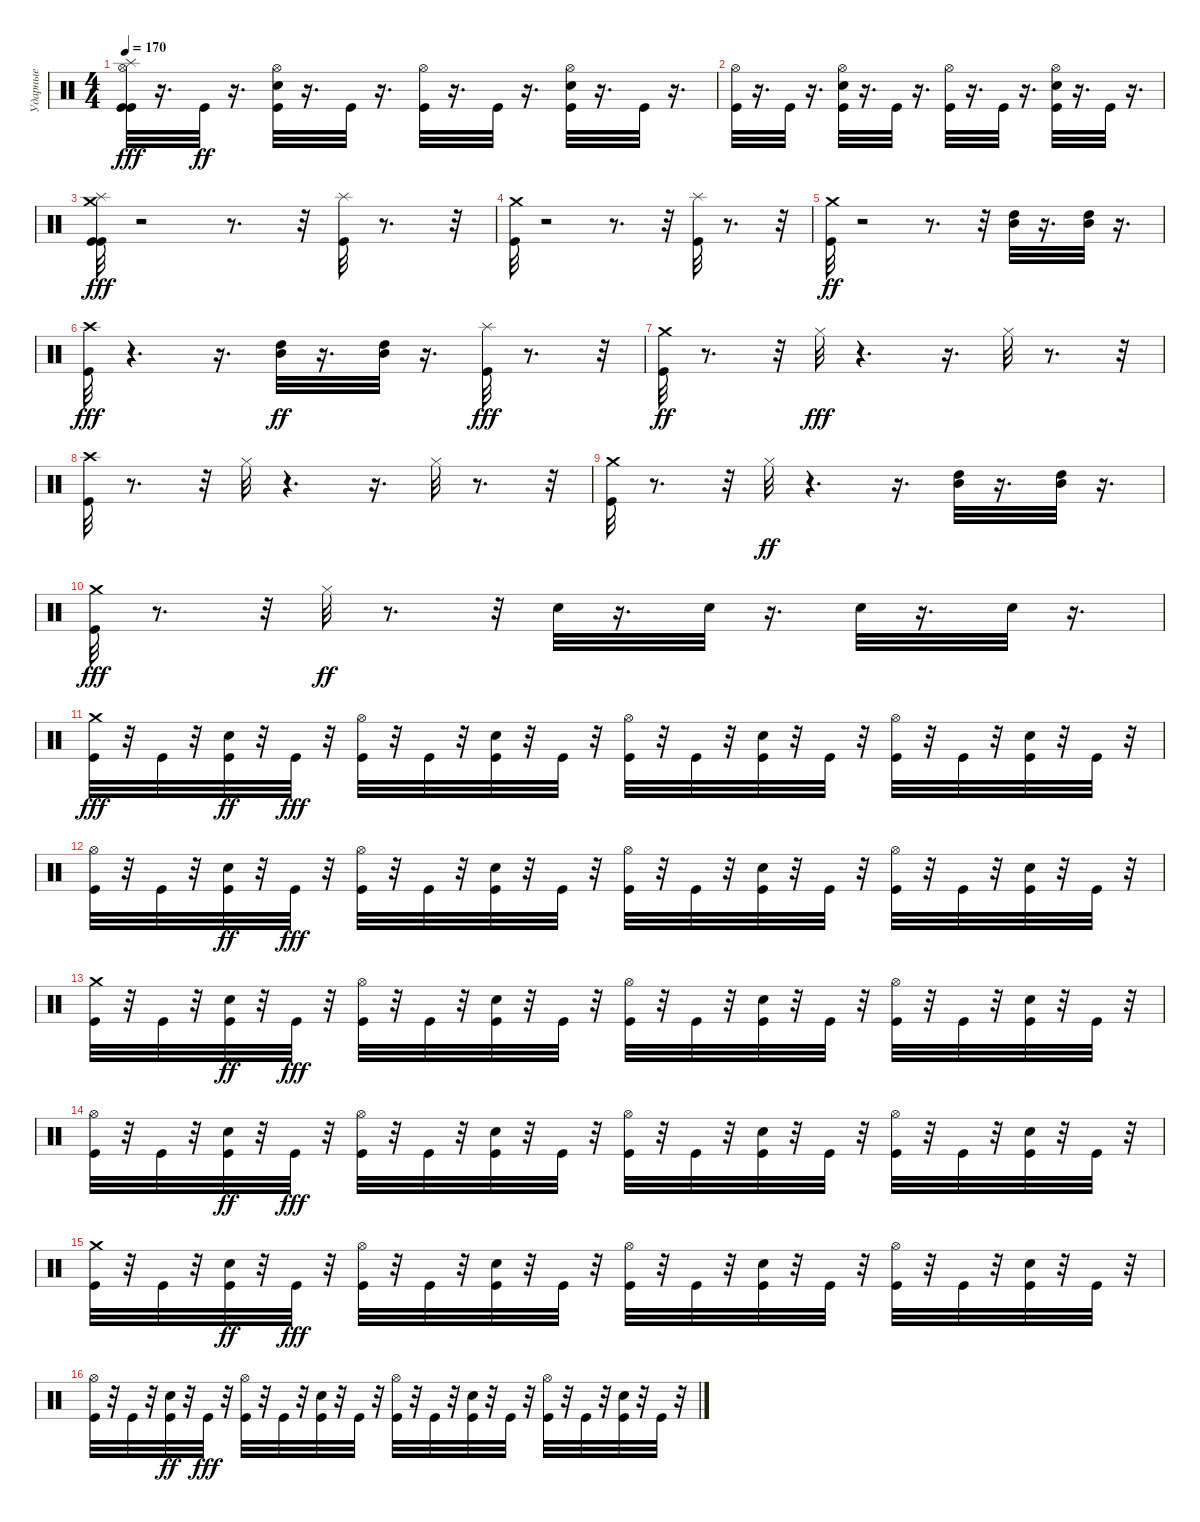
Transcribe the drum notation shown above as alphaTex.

\track ("Ударные" "Ударные") {instrument percussion}
\staff {score}
\articulation defaults
\ts (4 4)
\tempo 170
\clef neutral
\ks c
("Hi-Hat (open)" "Kick (hit)" "Splash (hit)" "Kick (hit)").32{dy fff} r.16{d} "Kick (hit)".32{dy ff} r.16{d} ("Hi-Hat (open)" "Snare (hit) 2" "Kick (hit)").32 r.16{d} "Kick (hit)".32 r.16{d} ("Hi-Hat (open)" "Kick (hit)").32 r.16{d} "Kick (hit)".32 r.16{d} ("Hi-Hat (open)" "Snare (hit) 2" "Kick (hit)").32 r.16{d} "Kick (hit)".32 r.16{d} |
("Hi-Hat (open)" "Kick (hit)").32 r.16{d} "Kick (hit)".32 r.16{d} ("Hi-Hat (open)" "Snare (hit) 2" "Kick (hit)").32 r.16{d} "Kick (hit)".32 r.16{d} ("Hi-Hat (open)" "Kick (hit)").32 r.16{d} "Kick (hit)".32 r.16{d} ("Hi-Hat (open)" "Snare (hit) 2" "Kick (hit)").32 r.16{d} "Kick (hit)".32 r.16{d} |
("Splash (hit)" "Kick (hit)" "Crash medium (hit)" "Kick (hit)").32{dy fff} r.2 r.8{d} r.32 ("Splash (hit)" "Kick (hit)").32 r.8{d} r.32 |
("Crash medium (hit)" "Kick (hit)").32 r.2 r.8{d} r.32 ("Splash (hit)" "Kick (hit)").32 r.8{d} r.32 |
("Kick (hit)" "Crash medium (hit)").32{dy ff} r.2 r.8{d} r.32 ("Mid Tom (hit)" "High Tom (hit)").32 r.16{d} ("High Tom (hit)" "Mid Tom (hit)").32 r.16{d} |
("Crash high (hit)" "Kick (hit)").32{dy fff} r.4{d} r.16{d} ("High Tom (hit)" "Mid Tom (hit)").32{dy ff} r.16{d} ("High Tom (hit)" "Mid Tom (hit)").32 r.16{d} ("Splash (hit)" "Kick (hit)").32{dy fff} r.8{d} r.32 |
("Kick (hit)" "Crash medium (hit)").32{dy ff} r.8{d} r.32 "Hi-Hat (closed)".32{dy fff} r.4{d} r.16{d} "Hi-Hat (closed)".32 r.8{d} r.32 |
("Crash high (hit)" "Kick (hit)").32 r.8{d} r.32 "Hi-Hat (closed)".32 r.4{d} r.16{d} "Hi-Hat (closed)".32 r.8{d} r.32 |
("Crash medium (hit)" "Kick (hit)").32 r.8{d} r.32 "Hi-Hat (closed)".32{dy ff} r.4{d} r.16{d} ("High Tom (hit)" "Mid Tom (hit)").32 r.16{d} ("High Tom (hit)" "Mid Tom (hit)").32 r.16{d} |
("Crash medium (hit)" "Kick (hit)").32{dy fff} r.8{d} r.32 "Hi-Hat (closed)".32{dy ff} r.8{d} r.32 "Snare (hit) 2".32 r.16{d} "Snare (hit) 2".32 r.16{d} "Snare (hit) 2".32 r.16{d} "Snare (hit) 2".32 r.16{d} |
("Crash medium (hit)" "Kick (hit)").32{dy fff} r.32 "Kick (hit)".32 r.32 ("Kick (hit)" "Snare (hit) 2").32{dy ff} r.32 "Kick (hit)".32{dy fff} r.32 ("Hi-Hat (open)" "Kick (hit)").32 r.32 "Kick (hit)".32 r.32 ("Snare (hit) 2" "Kick (hit)").32 r.32 "Kick (hit)".32 r.32 ("Hi-Hat (open)" "Kick (hit)").32 r.32 "Kick (hit)".32 r.32 ("Snare (hit) 2" "Kick (hit)").32 r.32 "Kick (hit)".32 r.32 ("Hi-Hat (open)" "Kick (hit)").32 r.32 "Kick (hit)".32 r.32 ("Snare (hit) 2" "Kick (hit)").32 r.32 "Kick (hit)".32 r.32 |
("Hi-Hat (open)" "Kick (hit)").32 r.32 "Kick (hit)".32 r.32 ("Kick (hit)" "Snare (hit) 2").32{dy ff} r.32 "Kick (hit)".32{dy fff} r.32 ("Hi-Hat (open)" "Kick (hit)").32 r.32 "Kick (hit)".32 r.32 ("Snare (hit) 2" "Kick (hit)").32 r.32 "Kick (hit)".32 r.32 ("Hi-Hat (open)" "Kick (hit)").32 r.32 "Kick (hit)".32 r.32 ("Snare (hit) 2" "Kick (hit)").32 r.32 "Kick (hit)".32 r.32 ("Hi-Hat (open)" "Kick (hit)").32 r.32 "Kick (hit)".32 r.32 ("Snare (hit) 2" "Kick (hit)").32 r.32 "Kick (hit)".32 r.32 |
("Crash medium (hit)" "Kick (hit)").32 r.32 "Kick (hit)".32 r.32 ("Kick (hit)" "Snare (hit) 2").32{dy ff} r.32 "Kick (hit)".32{dy fff} r.32 ("Hi-Hat (open)" "Kick (hit)").32 r.32 "Kick (hit)".32 r.32 ("Snare (hit) 2" "Kick (hit)").32 r.32 "Kick (hit)".32 r.32 ("Hi-Hat (open)" "Kick (hit)").32 r.32 "Kick (hit)".32 r.32 ("Snare (hit) 2" "Kick (hit)").32 r.32 "Kick (hit)".32 r.32 ("Hi-Hat (open)" "Kick (hit)").32 r.32 "Kick (hit)".32 r.32 ("Snare (hit) 2" "Kick (hit)").32 r.32 "Kick (hit)".32 r.32 |
("Hi-Hat (open)" "Kick (hit)").32 r.32 "Kick (hit)".32 r.32 ("Kick (hit)" "Snare (hit) 2").32{dy ff} r.32 "Kick (hit)".32{dy fff} r.32 ("Hi-Hat (open)" "Kick (hit)").32 r.32 "Kick (hit)".32 r.32 ("Snare (hit) 2" "Kick (hit)").32 r.32 "Kick (hit)".32 r.32 ("Hi-Hat (open)" "Kick (hit)").32 r.32 "Kick (hit)".32 r.32 ("Snare (hit) 2" "Kick (hit)").32 r.32 "Kick (hit)".32 r.32 ("Hi-Hat (open)" "Kick (hit)").32 r.32 "Kick (hit)".32 r.32 ("Snare (hit) 2" "Kick (hit)").32 r.32 "Kick (hit)".32 r.32 |
("Crash medium (hit)" "Kick (hit)").32 r.32 "Kick (hit)".32 r.32 ("Kick (hit)" "Snare (hit) 2").32{dy ff} r.32 "Kick (hit)".32{dy fff} r.32 ("Hi-Hat (open)" "Kick (hit)").32 r.32 "Kick (hit)".32 r.32 ("Snare (hit) 2" "Kick (hit)").32 r.32 "Kick (hit)".32 r.32 ("Hi-Hat (open)" "Kick (hit)").32 r.32 "Kick (hit)".32 r.32 ("Snare (hit) 2" "Kick (hit)").32 r.32 "Kick (hit)".32 r.32 ("Hi-Hat (open)" "Kick (hit)").32 r.32 "Kick (hit)".32 r.32 ("Snare (hit) 2" "Kick (hit)").32 r.32 "Kick (hit)".32 r.32 |
("Hi-Hat (open)" "Kick (hit)").32 r.32 "Kick (hit)".32 r.32 ("Kick (hit)" "Snare (hit) 2").32{dy ff} r.32 "Kick (hit)".32{dy fff} r.32 ("Hi-Hat (open)" "Kick (hit)").32 r.32 "Kick (hit)".32 r.32 ("Snare (hit) 2" "Kick (hit)").32 r.32 "Kick (hit)".32 r.32 ("Hi-Hat (open)" "Kick (hit)").32 r.32 "Kick (hit)".32 r.32 ("Snare (hit) 2" "Kick (hit)").32 r.32 "Kick (hit)".32 r.32 ("Hi-Hat (open)" "Kick (hit)").32 r.32 "Kick (hit)".32 r.32 ("Snare (hit) 2" "Kick (hit)").32 r.32 "Kick (hit)".32 r.32
